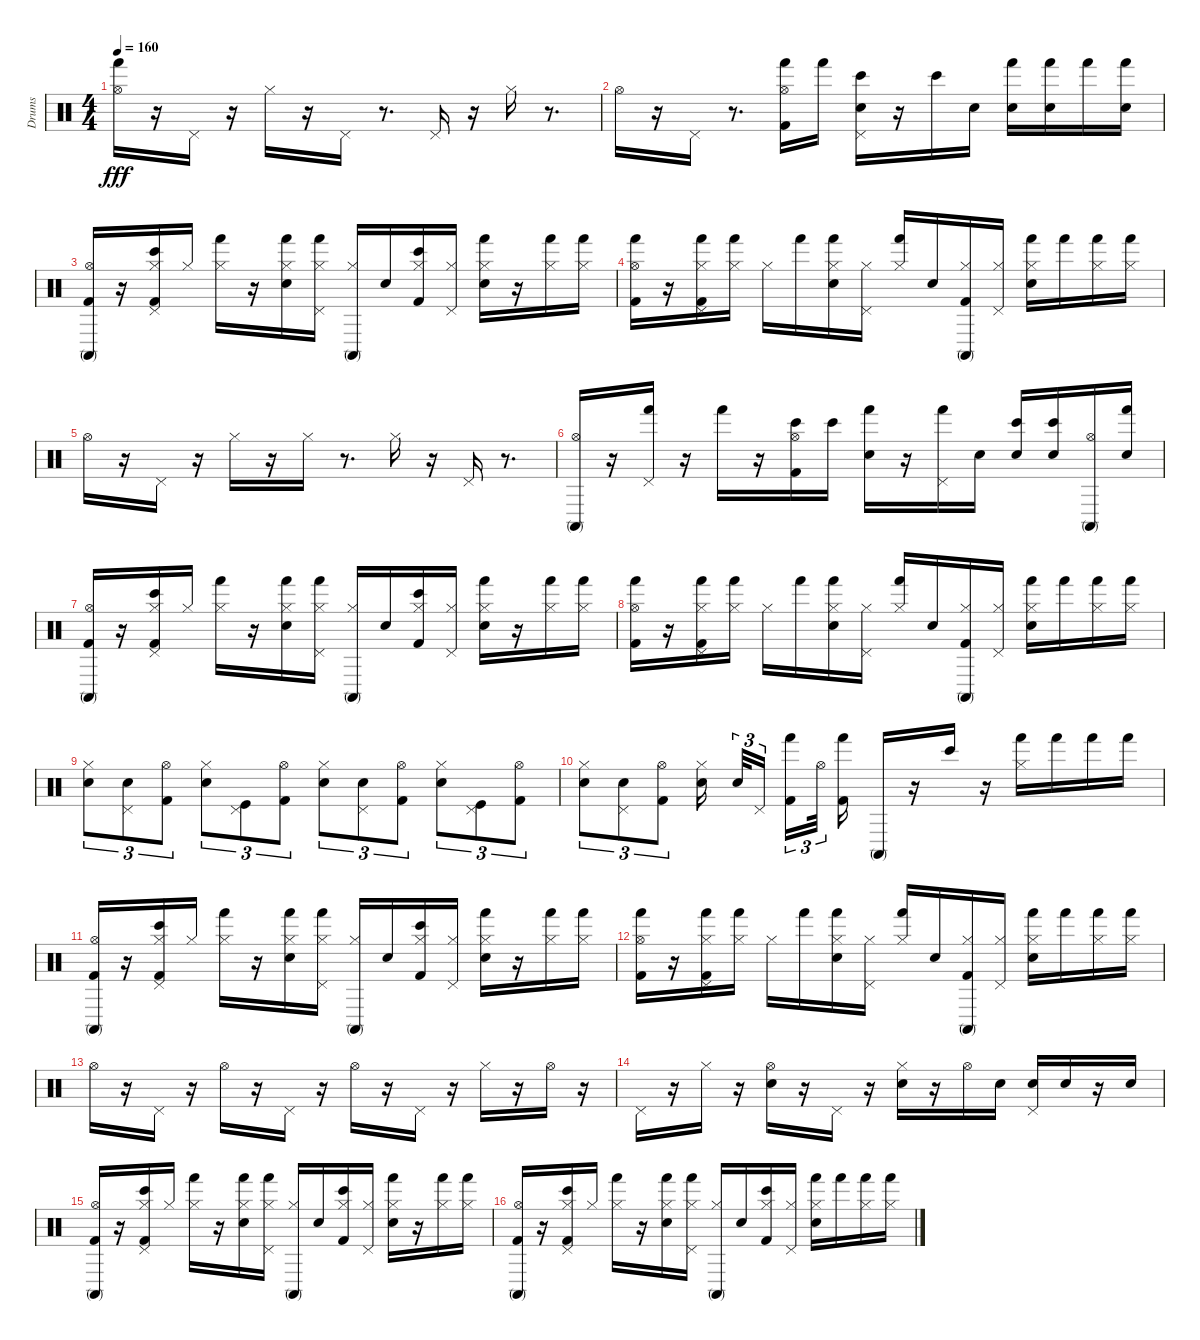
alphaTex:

\track ("Drums" "Drums") {instrument percussion}
\staff {score}
\articulation defaults
\ts (4 4)
\tempo 160
\clef neutral
\ks c
("Hi-Hat (open)" "Hand (hit)").16{dy fff} r.16 "Pedal Hi-Hat (hit)".16 r.16 "Hi-Hat (closed)".16 r.16 "Pedal Hi-Hat (hit)".16 r.8{d} "Pedal Hi-Hat (hit)".16 r.16 "Hi-Hat (closed)".16 r.8{d} |
"Hi-Hat (open)".16 r.16 "Pedal Hi-Hat (hit)".16 r.8{d} ("Hi-Hat (open)" "Hand (hit)" "Kick (hit) 2").16 "Hand (hit)".16 ("Pedal Hi-Hat (hit)" "Electric Snare (hit)" "Bongo High (hit)").16 r.16 "Bongo High (hit)".16 "Electric Snare (hit)".16 ("Electric Snare (hit)" "Hand (hit)").16 ("Hand (hit)" "Electric Snare (hit)").16 "Hand (hit)".16 ("Hand (hit)" "Electric Snare (hit)").16 |
("Conga high (mute)" "Hi-Hat (open)" "Kick (hit) 2").16 r.16 ("Kick (hit) 2" "Bongo High (hit)" "Hi-Hat (closed)" "Pedal Hi-Hat (hit)").16 "Hi-Hat (closed)".16 ("Hand (hit)" "Hi-Hat (closed)").16 r.16 ("Hand (hit)" "Electric Snare (hit)" "Hi-Hat (closed)").16 ("Pedal Hi-Hat (hit)" "Hi-Hat (closed)" "Hand (hit)").16 ("Hi-Hat (closed)" "Conga high (mute)").16 "Electric Snare (hit)".16 ("Hi-Hat (closed)" "Bongo High (hit)" "Kick (hit) 2").16 ("Pedal Hi-Hat (hit)" "Hi-Hat (closed)").16 ("Hi-Hat (closed)" "Electric Snare (hit)" "Hand (hit)").16 r.16 ("Hi-Hat (closed)" "Hand (hit)").16 ("Hand (hit)" "Hi-Hat (closed)").16 |
("Kick (hit) 2" "Hi-Hat (open)" "Hand (hit)").16 r.16 ("Pedal Hi-Hat (hit)" "Kick (hit) 2" "Hand (hit)" "Hi-Hat (closed)").16 ("Hi-Hat (closed)" "Hand (hit)").16 "Hi-Hat (closed)".16 "Hand (hit)".16 ("Electric Snare (hit)" "Hi-Hat (closed)" "Hand (hit)").16 ("Hi-Hat (closed)" "Pedal Hi-Hat (hit)").16 ("Hi-Hat (closed)" "Hand (hit)").16 "Electric Snare (hit)".16 ("Conga high (mute)" "Kick (hit) 2" "Hi-Hat (closed)").16 ("Pedal Hi-Hat (hit)" "Hi-Hat (closed)").16 ("Hand (hit)" "Hi-Hat (closed)" "Electric Snare (hit)").16 "Hand (hit)".16 ("Hand (hit)" "Hi-Hat (closed)").16 ("Hi-Hat (closed)" "Hand (hit)").16 |
"Hi-Hat (open)".16 r.16 "Pedal Hi-Hat (hit)".16 r.16 "Hi-Hat (closed)".16 r.16 "Hi-Hat (closed)".16 r.8{d} "Hi-Hat (closed)".16 r.16 "Pedal Hi-Hat (hit)".16 r.8{d} |
("Hi-Hat (open)" "Conga high (mute)").16 r.16 ("Pedal Hi-Hat (hit)" "Hand (hit)").16 r.16 "Hand (hit)".16 r.16 ("Bongo High (hit)" "Kick (hit) 2" "Hi-Hat (open)").16 "Bongo High (hit)".16 ("Electric Snare (hit)" "Hand (hit)").16 r.16 ("Hand (hit)" "Pedal Hi-Hat (hit)").16 "Electric Snare (hit)".16 ("Electric Snare (hit)" "Bongo High (hit)").16 ("Bongo High (hit)" "Electric Snare (hit)").16 ("Hi-Hat (open)" "Conga high (mute)").16 ("Hand (hit)" "Electric Snare (hit)").16 |
("Conga high (mute)" "Kick (hit) 2" "Hi-Hat (open)").16 r.16 ("Kick (hit) 2" "Hi-Hat (closed)" "Pedal Hi-Hat (hit)" "Bongo High (hit)").16 "Hi-Hat (closed)".16 ("Hi-Hat (closed)" "Hand (hit)").16 r.16 ("Hand (hit)" "Hi-Hat (closed)" "Electric Snare (hit)").16 ("Hi-Hat (closed)" "Pedal Hi-Hat (hit)" "Hand (hit)").16 ("Hi-Hat (closed)" "Conga high (mute)").16 "Electric Snare (hit)".16 ("Kick (hit) 2" "Hi-Hat (closed)" "Bongo High (hit)").16 ("Pedal Hi-Hat (hit)" "Hi-Hat (closed)").16 ("Electric Snare (hit)" "Hi-Hat (closed)" "Hand (hit)").16 r.16 ("Hand (hit)" "Hi-Hat (closed)").16 ("Hand (hit)" "Hi-Hat (closed)").16 |
("Hand (hit)" "Kick (hit) 2" "Hi-Hat (open)").16 r.16 ("Hi-Hat (closed)" "Pedal Hi-Hat (hit)" "Hand (hit)" "Kick (hit) 2").16 ("Hi-Hat (closed)" "Hand (hit)").16 "Hi-Hat (closed)".16 "Hand (hit)".16 ("Hand (hit)" "Hi-Hat (closed)" "Electric Snare (hit)").16 ("Pedal Hi-Hat (hit)" "Hi-Hat (closed)").16 ("Hi-Hat (closed)" "Hand (hit)").16 "Electric Snare (hit)".16 ("Kick (hit) 2" "Conga high (mute)" "Hi-Hat (closed)").16 ("Pedal Hi-Hat (hit)" "Hi-Hat (closed)").16 ("Hi-Hat (closed)" "Electric Snare (hit)" "Hand (hit)").16 "Hand (hit)".16 ("Hi-Hat (closed)" "Hand (hit)").16 ("Hand (hit)" "Hi-Hat (closed)").16 |
("Electric Snare (hit)" "Hi-Hat (closed)").8{tu (3 2)} ("Pedal Hi-Hat (hit)" "Electric Snare (hit)").8{tu (3 2)} ("Hi-Hat (open)" "Kick (hit) 2").8{tu (3 2)} ("Hi-Hat (closed)" "Electric Snare (hit)").8{tu (3 2)} ("Kick (hit)" "Pedal Hi-Hat (hit)").8{tu (3 2)} ("Kick (hit) 2" "Hi-Hat (open)").8{tu (3 2)} ("Hi-Hat (closed)" "Electric Snare (hit)").8{tu (3 2)} ("Pedal Hi-Hat (hit)" "Electric Snare (hit)").8{tu (3 2)} ("Kick (hit) 2" "Hi-Hat (open)").8{tu (3 2)} ("Hi-Hat (closed)" "Electric Snare (hit)").8{tu (3 2)} ("Pedal Hi-Hat (hit)" "Kick (hit)").8{tu (3 2)} ("Hi-Hat (open)" "Kick (hit) 2").8{tu (3 2)} |
("Electric Snare (hit)" "Hi-Hat (closed)").8{tu (3 2)} ("Pedal Hi-Hat (hit)" "Electric Snare (hit)").8{tu (3 2)} ("Hi-Hat (open)" "Kick (hit) 2").8{tu (3 2)} ("Electric Snare (hit)" "Hi-Hat (closed)").16{beam splitsecondary} "Electric Snare (hit)".32{tu (3 2)} "Pedal Hi-Hat (hit)".16{tu (3 2) beam splitsecondary} ("Kick (hit) 2" "Hand (hit)").16{tu (3 2)} "Hi-Hat (open)".32{tu (3 2) beam splitsecondary} ("Hand (hit)" "Kick (hit) 2").16 "Conga high (mute)".16 r.16 "Bongo High (hit)".16 r.16 ("Hand (hit)" "Hi-Hat (closed)").16 "Hand (hit)".16 "Hand (hit)".16 "Hand (hit)".16 |
("Hi-Hat (open)" "Kick (hit) 2" "Conga high (mute)").16 r.16 ("Kick (hit) 2" "Hi-Hat (closed)" "Pedal Hi-Hat (hit)" "Bongo High (hit)").16 "Hi-Hat (closed)".16 ("Hi-Hat (closed)" "Hand (hit)").16 r.16 ("Electric Snare (hit)" "Hand (hit)" "Hi-Hat (closed)").16 ("Pedal Hi-Hat (hit)" "Hi-Hat (closed)" "Hand (hit)").16 ("Conga high (mute)" "Hi-Hat (closed)").16 "Electric Snare (hit)".16 ("Kick (hit) 2" "Hi-Hat (closed)" "Bongo High (hit)").16 ("Hi-Hat (closed)" "Pedal Hi-Hat (hit)").16 ("Hi-Hat (closed)" "Hand (hit)" "Electric Snare (hit)").16 r.16 ("Hand (hit)" "Hi-Hat (closed)").16 ("Hi-Hat (closed)" "Hand (hit)").16 |
("Hand (hit)" "Kick (hit) 2" "Hi-Hat (open)").16 r.16 ("Pedal Hi-Hat (hit)" "Hand (hit)" "Hi-Hat (closed)" "Kick (hit) 2").16 ("Hi-Hat (closed)" "Hand (hit)").16 "Hi-Hat (closed)".16 "Hand (hit)".16 ("Electric Snare (hit)" "Hi-Hat (closed)" "Hand (hit)").16 ("Hi-Hat (closed)" "Pedal Hi-Hat (hit)").16 ("Hand (hit)" "Hi-Hat (closed)").16 "Electric Snare (hit)".16 ("Hi-Hat (closed)" "Conga high (mute)" "Kick (hit) 2").16 ("Hi-Hat (closed)" "Pedal Hi-Hat (hit)").16 ("Electric Snare (hit)" "Hand (hit)" "Hi-Hat (closed)").16 "Hand (hit)".16 ("Hand (hit)" "Hi-Hat (closed)").16 ("Hi-Hat (closed)" "Hand (hit)").16 |
"Hi-Hat (open)".16 r.16 "Pedal Hi-Hat (hit)".16 r.16 "Hi-Hat (open)".16 r.16 "Pedal Hi-Hat (hit)".16 r.16 "Hi-Hat (open)".16 r.16 "Pedal Hi-Hat (hit)".16 r.16 "Hi-Hat (closed)".16 r.16 "Hi-Hat (open)".16 r.16 |
"Pedal Hi-Hat (hit)".16 r.16 "Hi-Hat (closed)".16 r.16 ("Electric Snare (hit)" "Hi-Hat (open)").16 r.16 "Pedal Hi-Hat (hit)".16 r.16 ("Electric Snare (hit)" "Hi-Hat (closed)").16 r.16 "Hi-Hat (open)".16 "Electric Snare (hit)".16 ("Electric Snare (hit)" "Pedal Hi-Hat (hit)").16 "Electric Snare (hit)".16 r.16 "Electric Snare (hit)".16 |
("Hi-Hat (open)" "Kick (hit) 2" "Conga high (mute)").16 r.16 ("Kick (hit) 2" "Hi-Hat (closed)" "Pedal Hi-Hat (hit)" "Bongo High (hit)").16 "Hi-Hat (closed)".16 ("Hi-Hat (closed)" "Hand (hit)").16 r.16 ("Hi-Hat (closed)" "Electric Snare (hit)" "Hand (hit)").16 ("Hand (hit)" "Pedal Hi-Hat (hit)" "Hi-Hat (closed)").16 ("Hi-Hat (closed)" "Conga high (mute)").16 "Electric Snare (hit)".16 ("Hi-Hat (closed)" "Bongo High (hit)" "Kick (hit) 2").16 ("Hi-Hat (closed)" "Pedal Hi-Hat (hit)").16 ("Electric Snare (hit)" "Hi-Hat (closed)" "Hand (hit)").16 r.16 ("Hi-Hat (closed)" "Hand (hit)").16 ("Hi-Hat (closed)" "Hand (hit)").16 |
("Conga high (mute)" "Hi-Hat (open)" "Kick (hit) 2").16 r.16 ("Pedal Hi-Hat (hit)" "Bongo High (hit)" "Hi-Hat (closed)" "Kick (hit) 2").16 "Hi-Hat (closed)".16 ("Hand (hit)" "Hi-Hat (closed)").16 r.16 ("Hi-Hat (closed)" "Electric Snare (hit)" "Hand (hit)").16 ("Pedal Hi-Hat (hit)" "Hi-Hat (closed)" "Hand (hit)").16 ("Conga high (mute)" "Hi-Hat (closed)").16 "Electric Snare (hit)".16 ("Kick (hit) 2" "Bongo High (hit)" "Hi-Hat (closed)").16 ("Pedal Hi-Hat (hit)" "Hi-Hat (closed)").16 ("Electric Snare (hit)" "Hand (hit)" "Hi-Hat (closed)").16 "Hand (hit)".16 ("Hi-Hat (closed)" "Hand (hit)").16 ("Hi-Hat (closed)" "Hand (hit)").16
